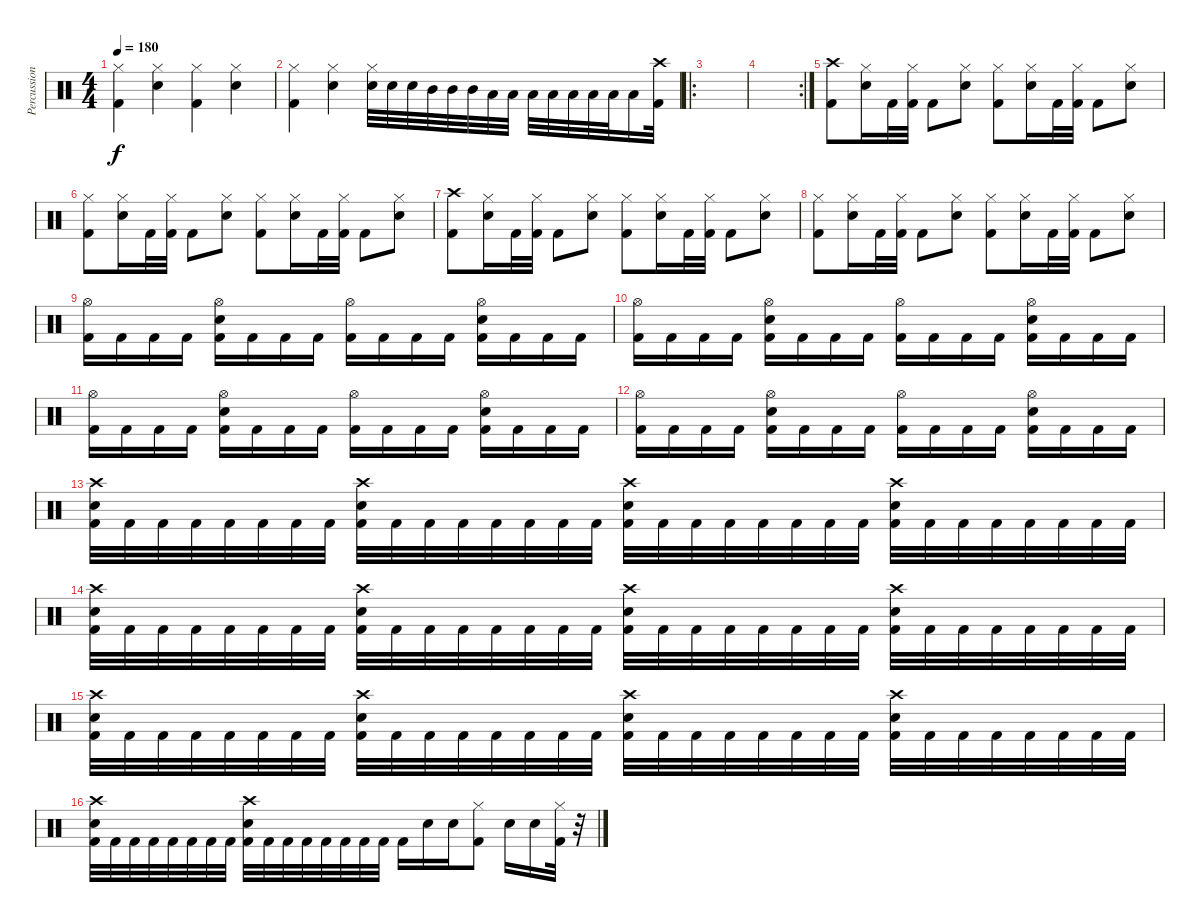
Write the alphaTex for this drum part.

\track ("Percussions" "Percussion") {instrument percussion}
\staff {score}
\articulation defaults
\ts (4 4)
\tempo 180
\clef neutral
\ks c
("Hi-Hat (closed)" "Kick (hit) 2").4{dy f} ("Hi-Hat (closed)" "Snare (hit) 2").4 ("Hi-Hat (closed)" "Kick (hit) 2").4 ("Hi-Hat (closed)" "Snare (hit) 2").4 |
("Hi-Hat (closed)" "Kick (hit) 2").4 ("Hi-Hat (closed)" "Snare (hit) 2").4 ("Hi-Hat (closed)" "Snare (hit) 2").32 "Snare (hit) 2".32 "Snare (hit) 2".32 "Mid Tom (hit)".32 "Mid Tom (hit)".32 "Mid Tom (hit)".32 "Low Tom (hit)".32 "Low Tom (hit)".32 "Low Tom (hit)".32 "Low Tom (hit)".32 "Low Tom (hit)".32 "Low Floor Tom (hit)".32 "Low Floor Tom (hit)".32 "Low Floor Tom (hit)".16 ("Crash high (hit)" "Kick (hit) 2").32 |
\ro
|
\rc 2
|
("Crash high (hit)" "Kick (hit) 2").8 ("Hi-Hat (closed)" "Snare (hit) 2").16 "Kick (hit) 2".32 ("Hi-Hat (closed)" "Kick (hit) 2").32 "Kick (hit) 2".8 ("Hi-Hat (closed)" "Snare (hit) 2").8 ("Hi-Hat (closed)" "Kick (hit) 2").8 ("Hi-Hat (closed)" "Snare (hit) 2").16 "Kick (hit) 2".32 ("Hi-Hat (closed)" "Kick (hit) 2").32 "Kick (hit) 2".8 ("Hi-Hat (closed)" "Snare (hit) 2").8 |
("Hi-Hat (closed)" "Kick (hit) 2").8 ("Hi-Hat (closed)" "Snare (hit) 2").16 "Kick (hit) 2".32 ("Hi-Hat (closed)" "Kick (hit) 2").32 "Kick (hit) 2".8 ("Hi-Hat (closed)" "Snare (hit) 2").8 ("Hi-Hat (closed)" "Kick (hit) 2").8 ("Hi-Hat (closed)" "Snare (hit) 2").16 "Kick (hit) 2".32 ("Hi-Hat (closed)" "Kick (hit) 2").32 "Kick (hit) 2".8 ("Hi-Hat (closed)" "Snare (hit) 2").8 |
("Crash high (hit)" "Kick (hit) 2").8 ("Hi-Hat (closed)" "Snare (hit) 2").16 "Kick (hit) 2".32 ("Hi-Hat (closed)" "Kick (hit) 2").32 "Kick (hit) 2".8 ("Hi-Hat (closed)" "Snare (hit) 2").8 ("Hi-Hat (closed)" "Kick (hit) 2").8 ("Hi-Hat (closed)" "Snare (hit) 2").16 "Kick (hit) 2".32 ("Hi-Hat (closed)" "Kick (hit) 2").32 "Kick (hit) 2".8 ("Hi-Hat (closed)" "Snare (hit) 2").8 |
("Hi-Hat (closed)" "Kick (hit) 2").8 ("Hi-Hat (closed)" "Snare (hit) 2").16 "Kick (hit) 2".32 ("Hi-Hat (closed)" "Kick (hit) 2").32 "Kick (hit) 2".8 ("Hi-Hat (closed)" "Snare (hit) 2").8 ("Hi-Hat (closed)" "Kick (hit) 2").8 ("Hi-Hat (closed)" "Snare (hit) 2").16 "Kick (hit) 2".32 ("Hi-Hat (closed)" "Kick (hit) 2").32 "Kick (hit) 2".8 ("Hi-Hat (closed)" "Snare (hit) 2").8 |
("Hi-Hat (open)" "Kick (hit) 2").16 "Kick (hit) 2".16 "Kick (hit) 2".16 "Kick (hit) 2".16 ("Hi-Hat (open)" "Snare (hit) 2" "Kick (hit) 2").16 "Kick (hit) 2".16 "Kick (hit) 2".16 "Kick (hit) 2".16 ("Hi-Hat (open)" "Kick (hit) 2").16 "Kick (hit) 2".16 "Kick (hit) 2".16 "Kick (hit) 2".16 ("Hi-Hat (open)" "Snare (hit) 2" "Kick (hit) 2").16 "Kick (hit) 2".16 "Kick (hit) 2".16 "Kick (hit) 2".16 |
("Hi-Hat (open)" "Kick (hit) 2").16 "Kick (hit) 2".16 "Kick (hit) 2".16 "Kick (hit) 2".16 ("Hi-Hat (open)" "Snare (hit) 2" "Kick (hit) 2").16 "Kick (hit) 2".16 "Kick (hit) 2".16 "Kick (hit) 2".16 ("Hi-Hat (open)" "Kick (hit) 2").16 "Kick (hit) 2".16 "Kick (hit) 2".16 "Kick (hit) 2".16 ("Hi-Hat (open)" "Snare (hit) 2" "Kick (hit) 2").16 "Kick (hit) 2".16 "Kick (hit) 2".16 "Kick (hit) 2".16 |
("Hi-Hat (open)" "Kick (hit) 2").16 "Kick (hit) 2".16 "Kick (hit) 2".16 "Kick (hit) 2".16 ("Hi-Hat (open)" "Snare (hit) 2" "Kick (hit) 2").16 "Kick (hit) 2".16 "Kick (hit) 2".16 "Kick (hit) 2".16 ("Hi-Hat (open)" "Kick (hit) 2").16 "Kick (hit) 2".16 "Kick (hit) 2".16 "Kick (hit) 2".16 ("Hi-Hat (open)" "Snare (hit) 2" "Kick (hit) 2").16 "Kick (hit) 2".16 "Kick (hit) 2".16 "Kick (hit) 2".16 |
("Hi-Hat (open)" "Kick (hit) 2").16 "Kick (hit) 2".16 "Kick (hit) 2".16 "Kick (hit) 2".16 ("Hi-Hat (open)" "Snare (hit) 2" "Kick (hit) 2").16 "Kick (hit) 2".16 "Kick (hit) 2".16 "Kick (hit) 2".16 ("Hi-Hat (open)" "Kick (hit) 2").16 "Kick (hit) 2".16 "Kick (hit) 2".16 "Kick (hit) 2".16 ("Hi-Hat (open)" "Snare (hit) 2" "Kick (hit) 2").16 "Kick (hit) 2".16 "Kick (hit) 2".16 "Kick (hit) 2".16 |
("Crash high (hit)" "Snare (hit) 2" "Kick (hit) 2").32 "Kick (hit) 2".32 "Kick (hit) 2".32 "Kick (hit) 2".32 "Kick (hit) 2".32 "Kick (hit) 2".32 "Kick (hit) 2".32 "Kick (hit) 2".32 ("Crash high (hit)" "Snare (hit) 2" "Kick (hit) 2").32 "Kick (hit) 2".32 "Kick (hit) 2".32 "Kick (hit) 2".32 "Kick (hit) 2".32 "Kick (hit) 2".32 "Kick (hit) 2".32 "Kick (hit) 2".32 ("Crash high (hit)" "Snare (hit) 2" "Kick (hit) 2").32 "Kick (hit) 2".32 "Kick (hit) 2".32 "Kick (hit) 2".32 "Kick (hit) 2".32 "Kick (hit) 2".32 "Kick (hit) 2".32 "Kick (hit) 2".32 ("Crash high (hit)" "Snare (hit) 2" "Kick (hit) 2").32 "Kick (hit) 2".32 "Kick (hit) 2".32 "Kick (hit) 2".32 "Kick (hit) 2".32 "Kick (hit) 2".32 "Kick (hit) 2".32 "Kick (hit) 2".32 |
("Crash high (hit)" "Snare (hit) 2" "Kick (hit) 2").32 "Kick (hit) 2".32 "Kick (hit) 2".32 "Kick (hit) 2".32 "Kick (hit) 2".32 "Kick (hit) 2".32 "Kick (hit) 2".32 "Kick (hit) 2".32 ("Crash high (hit)" "Snare (hit) 2" "Kick (hit) 2").32 "Kick (hit) 2".32 "Kick (hit) 2".32 "Kick (hit) 2".32 "Kick (hit) 2".32 "Kick (hit) 2".32 "Kick (hit) 2".32 "Kick (hit) 2".32 ("Crash high (hit)" "Snare (hit) 2" "Kick (hit) 2").32 "Kick (hit) 2".32 "Kick (hit) 2".32 "Kick (hit) 2".32 "Kick (hit) 2".32 "Kick (hit) 2".32 "Kick (hit) 2".32 "Kick (hit) 2".32 ("Crash high (hit)" "Snare (hit) 2" "Kick (hit) 2").32 "Kick (hit) 2".32 "Kick (hit) 2".32 "Kick (hit) 2".32 "Kick (hit) 2".32 "Kick (hit) 2".32 "Kick (hit) 2".32 "Kick (hit) 2".32 |
("Crash high (hit)" "Snare (hit) 2" "Kick (hit) 2").32 "Kick (hit) 2".32 "Kick (hit) 2".32 "Kick (hit) 2".32 "Kick (hit) 2".32 "Kick (hit) 2".32 "Kick (hit) 2".32 "Kick (hit) 2".32 ("Crash high (hit)" "Snare (hit) 2" "Kick (hit) 2").32 "Kick (hit) 2".32 "Kick (hit) 2".32 "Kick (hit) 2".32 "Kick (hit) 2".32 "Kick (hit) 2".32 "Kick (hit) 2".32 "Kick (hit) 2".32 ("Crash high (hit)" "Snare (hit) 2" "Kick (hit) 2").32 "Kick (hit) 2".32 "Kick (hit) 2".32 "Kick (hit) 2".32 "Kick (hit) 2".32 "Kick (hit) 2".32 "Kick (hit) 2".32 "Kick (hit) 2".32 ("Crash high (hit)" "Snare (hit) 2" "Kick (hit) 2").32 "Kick (hit) 2".32 "Kick (hit) 2".32 "Kick (hit) 2".32 "Kick (hit) 2".32 "Kick (hit) 2".32 "Kick (hit) 2".32 "Kick (hit) 2".32 |
("Crash high (hit)" "Snare (hit) 2" "Kick (hit) 2").32 "Kick (hit) 2".32 "Kick (hit) 2".32 "Kick (hit) 2".32 "Kick (hit) 2".32 "Kick (hit) 2".32 "Kick (hit) 2".32 "Kick (hit) 2".32 ("Crash high (hit)" "Snare (hit) 2" "Kick (hit) 2").32 "Kick (hit) 2".32 "Kick (hit) 2".32 "Kick (hit) 2".32 "Kick (hit) 2".32 "Kick (hit) 2".32 "Kick (hit) 2".32 "Kick (hit) 2".32 "Kick (hit) 2".16 "Snare (hit) 2".16 "Snare (hit) 2".16 ("Hi-Hat (closed)" "Kick (hit) 2").8 "Snare (hit) 2".16 "Snare (hit) 2".16 ("Hi-Hat (closed)" "Kick (hit) 2").32 r.32
